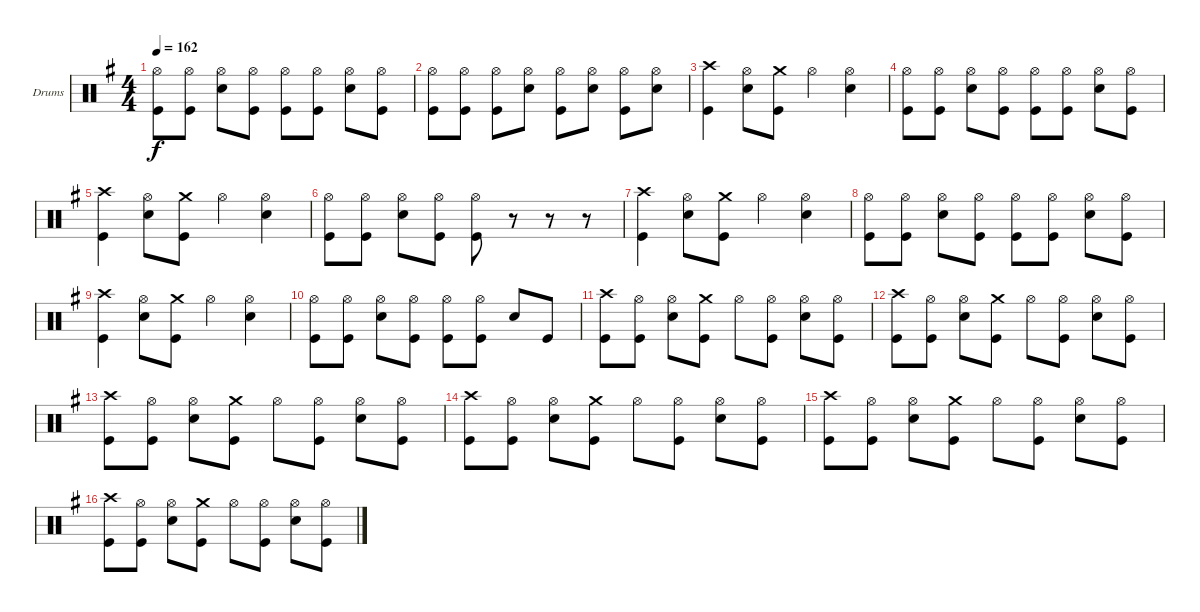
\defaultSystemsLayout 4
\bracketExtendMode groupsimilarinstruments
\firstSystemTrackNameOrientation horizontal
\otherSystemsTrackNameOrientation horizontal
\track ("Drumkit" "Drums") {instrument percussion}
\staff {score}
\articulation defaults
\ts (4 4)
\tempo 162
\clef neutral
\ks g
("Hi-Hat (open)" "Kick (hit)").8{dy f} ("Hi-Hat (open)" "Kick (hit)").8 ("Hi-Hat (open)" "Snare (hit) 2").8 ("Hi-Hat (open)" "Kick (hit)").8 ("Hi-Hat (open)" "Kick (hit)").8 ("Hi-Hat (open)" "Kick (hit)").8 ("Hi-Hat (open)" "Snare (hit) 2").8 ("Hi-Hat (open)" "Kick (hit)").8 |
("Hi-Hat (open)" "Kick (hit)").8 ("Hi-Hat (open)" "Kick (hit)").8 ("Hi-Hat (open)" "Kick (hit)").8 ("Hi-Hat (open)" "Snare (hit) 2").8 ("Hi-Hat (open)" "Kick (hit)").8 ("Hi-Hat (open)" "Snare (hit) 2").8 ("Hi-Hat (open)" "Kick (hit)").8 ("Hi-Hat (open)" "Snare (hit) 2").8 |
("Crash high (hit)" "Kick (hit)").4 ("Hi-Hat (open)" "Snare (hit) 2").8 ("Crash medium (hit)" "Kick (hit)").8 "Hi-Hat (open)".4 ("Hi-Hat (open)" "Snare (hit) 2").4 |
("Hi-Hat (open)" "Kick (hit)").8 ("Hi-Hat (open)" "Kick (hit)").8 ("Hi-Hat (open)" "Snare (hit) 2").8 ("Hi-Hat (open)" "Kick (hit)").8 ("Hi-Hat (open)" "Kick (hit)").8 ("Hi-Hat (open)" "Kick (hit)").8 ("Hi-Hat (open)" "Snare (hit) 2").8 ("Hi-Hat (open)" "Kick (hit)").8 |
("Crash high (hit)" "Kick (hit)").4 ("Hi-Hat (open)" "Snare (hit) 2").8 ("Crash medium (hit)" "Kick (hit)").8 "Hi-Hat (open)".4 ("Hi-Hat (open)" "Snare (hit) 2").4 |
("Hi-Hat (open)" "Kick (hit)").8 ("Hi-Hat (open)" "Kick (hit)").8 ("Hi-Hat (open)" "Snare (hit) 2").8 ("Hi-Hat (open)" "Kick (hit)").8 ("Hi-Hat (open)" "Kick (hit)").8 r.8 r.8 r.8 |
("Crash high (hit)" "Kick (hit)").4 ("Hi-Hat (open)" "Snare (hit) 2").8 ("Crash medium (hit)" "Kick (hit)").8 "Hi-Hat (open)".4 ("Hi-Hat (open)" "Snare (hit) 2").4 |
("Hi-Hat (open)" "Kick (hit)").8 ("Hi-Hat (open)" "Kick (hit)").8 ("Hi-Hat (open)" "Snare (hit) 2").8 ("Hi-Hat (open)" "Kick (hit)").8 ("Hi-Hat (open)" "Kick (hit)").8 ("Hi-Hat (open)" "Kick (hit)").8 ("Hi-Hat (open)" "Snare (hit) 2").8 ("Hi-Hat (open)" "Kick (hit)").8 |
("Crash high (hit)" "Kick (hit)").4 ("Hi-Hat (open)" "Snare (hit) 2").8 ("Crash medium (hit)" "Kick (hit)").8 "Hi-Hat (open)".4 ("Hi-Hat (open)" "Snare (hit) 2").4 |
("Hi-Hat (open)" "Kick (hit)").8 ("Hi-Hat (open)" "Kick (hit)").8 ("Hi-Hat (open)" "Snare (hit) 2").8 ("Hi-Hat (open)" "Kick (hit)").8 ("Hi-Hat (open)" "Kick (hit)").8 ("Hi-Hat (open)" "Kick (hit)").8 "Snare (hit) 2".8 "Kick (hit)".8 |
("Crash high (hit)" "Kick (hit)").8 ("Hi-Hat (open)" "Kick (hit)").8 ("Hi-Hat (open)" "Snare (hit) 2").8 ("Crash medium (hit)" "Kick (hit)").8 "Hi-Hat (open)".8 ("Hi-Hat (open)" "Kick (hit)").8 ("Hi-Hat (open)" "Snare (hit) 2").8 ("Hi-Hat (open)" "Kick (hit)").8 |
("Crash high (hit)" "Kick (hit)").8 ("Hi-Hat (open)" "Kick (hit)").8 ("Hi-Hat (open)" "Snare (hit) 2").8 ("Crash medium (hit)" "Kick (hit)").8 "Hi-Hat (open)".8 ("Hi-Hat (open)" "Kick (hit)").8 ("Hi-Hat (open)" "Snare (hit) 2").8 ("Hi-Hat (open)" "Kick (hit)").8 |
("Crash high (hit)" "Kick (hit)").8 ("Hi-Hat (open)" "Kick (hit)").8 ("Hi-Hat (open)" "Snare (hit) 2").8 ("Crash medium (hit)" "Kick (hit)").8 "Hi-Hat (open)".8 ("Hi-Hat (open)" "Kick (hit)").8 ("Hi-Hat (open)" "Snare (hit) 2").8 ("Hi-Hat (open)" "Kick (hit)").8 |
("Crash high (hit)" "Kick (hit)").8 ("Hi-Hat (open)" "Kick (hit)").8 ("Hi-Hat (open)" "Snare (hit) 2").8 ("Crash medium (hit)" "Kick (hit)").8 "Hi-Hat (open)".8 ("Hi-Hat (open)" "Kick (hit)").8 ("Hi-Hat (open)" "Snare (hit) 2").8 ("Hi-Hat (open)" "Kick (hit)").8 |
("Crash high (hit)" "Kick (hit)").8 ("Hi-Hat (open)" "Kick (hit)").8 ("Hi-Hat (open)" "Snare (hit) 2").8 ("Crash medium (hit)" "Kick (hit)").8 "Hi-Hat (open)".8 ("Hi-Hat (open)" "Kick (hit)").8 ("Hi-Hat (open)" "Snare (hit) 2").8 ("Hi-Hat (open)" "Kick (hit)").8 |
("Crash high (hit)" "Kick (hit)").8 ("Hi-Hat (open)" "Kick (hit)").8 ("Hi-Hat (open)" "Snare (hit) 2").8 ("Crash medium (hit)" "Kick (hit)").8 "Hi-Hat (open)".8 ("Hi-Hat (open)" "Kick (hit)").8 ("Hi-Hat (open)" "Snare (hit) 2").8 ("Hi-Hat (open)" "Kick (hit)").8
